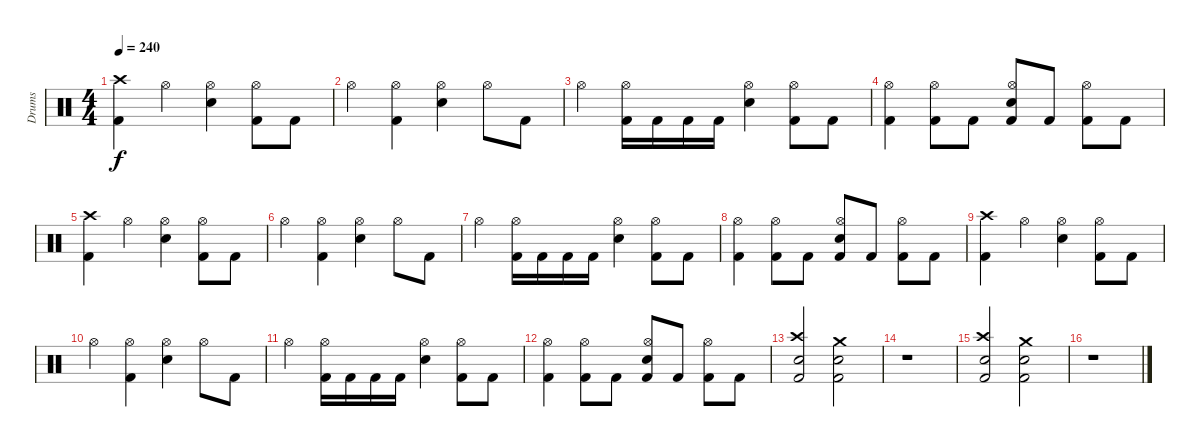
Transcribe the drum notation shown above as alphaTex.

\track ("Drums" "Drums") {instrument percussion}
\staff {score}
\articulation defaults
\ts (4 4)
\tempo 240
\clef neutral
\ks c
("Kick (hit) 2" "Crash high (hit)").4{dy f} "Hi-Hat (open)".4 ("Electric Snare (hit)" "Hi-Hat (open)").4 ("Kick (hit) 2" "Hi-Hat (open)").8 "Kick (hit) 2".8 |
"Hi-Hat (open)".4 ("Kick (hit) 2" "Hi-Hat (open)").4 ("Electric Snare (hit)" "Hi-Hat (open)").4 "Hi-Hat (open)".8 "Kick (hit) 2".8 |
"Hi-Hat (open)".4 ("Kick (hit) 2" "Hi-Hat (open)").16 "Kick (hit) 2".16 "Kick (hit) 2".16 "Kick (hit) 2".16 ("Electric Snare (hit)" "Hi-Hat (open)").4 ("Kick (hit) 2" "Hi-Hat (open)").8 "Kick (hit) 2".8 |
("Kick (hit) 2" "Hi-Hat (open)").4 ("Kick (hit) 2" "Hi-Hat (open)").8 "Kick (hit) 2".8 ("Kick (hit) 2" "Electric Snare (hit)" "Hi-Hat (open)").8 "Kick (hit) 2".8 ("Kick (hit) 2" "Hi-Hat (open)").8 "Kick (hit) 2".8 |
("Kick (hit) 2" "Crash high (hit)").4 "Hi-Hat (open)".4 ("Electric Snare (hit)" "Hi-Hat (open)").4 ("Kick (hit) 2" "Hi-Hat (open)").8 "Kick (hit) 2".8 |
"Hi-Hat (open)".4 ("Kick (hit) 2" "Hi-Hat (open)").4 ("Electric Snare (hit)" "Hi-Hat (open)").4 "Hi-Hat (open)".8 "Kick (hit) 2".8 |
"Hi-Hat (open)".4 ("Kick (hit) 2" "Hi-Hat (open)").16 "Kick (hit) 2".16 "Kick (hit) 2".16 "Kick (hit) 2".16 ("Electric Snare (hit)" "Hi-Hat (open)").4 ("Kick (hit) 2" "Hi-Hat (open)").8 "Kick (hit) 2".8 |
("Kick (hit) 2" "Hi-Hat (open)").4 ("Kick (hit) 2" "Hi-Hat (open)").8 "Kick (hit) 2".8 ("Kick (hit) 2" "Electric Snare (hit)" "Hi-Hat (open)").8 "Kick (hit) 2".8 ("Kick (hit) 2" "Hi-Hat (open)").8 "Kick (hit) 2".8 |
("Kick (hit) 2" "Crash high (hit)").4 "Hi-Hat (open)".4 ("Electric Snare (hit)" "Hi-Hat (open)").4 ("Kick (hit) 2" "Hi-Hat (open)").8 "Kick (hit) 2".8 |
"Hi-Hat (open)".4 ("Kick (hit) 2" "Hi-Hat (open)").4 ("Electric Snare (hit)" "Hi-Hat (open)").4 "Hi-Hat (open)".8 "Kick (hit) 2".8 |
"Hi-Hat (open)".4 ("Kick (hit) 2" "Hi-Hat (open)").16 "Kick (hit) 2".16 "Kick (hit) 2".16 "Kick (hit) 2".16 ("Electric Snare (hit)" "Hi-Hat (open)").4 ("Kick (hit) 2" "Hi-Hat (open)").8 "Kick (hit) 2".8 |
("Kick (hit) 2" "Hi-Hat (open)").4 ("Kick (hit) 2" "Hi-Hat (open)").8 "Kick (hit) 2".8 ("Kick (hit) 2" "Electric Snare (hit)" "Hi-Hat (open)").8 "Kick (hit) 2".8 ("Kick (hit) 2" "Hi-Hat (open)").8 "Kick (hit) 2".8 |
("Kick (hit) 2" "Electric Snare (hit)" "Crash high (hit)").2 ("Kick (hit) 2" "Electric Snare (hit)" "Crash medium (hit)").2 |
r.1 |
("Kick (hit) 2" "Electric Snare (hit)" "Crash high (hit)").2 ("Kick (hit) 2" "Electric Snare (hit)" "Crash medium (hit)").2 |
r.1
